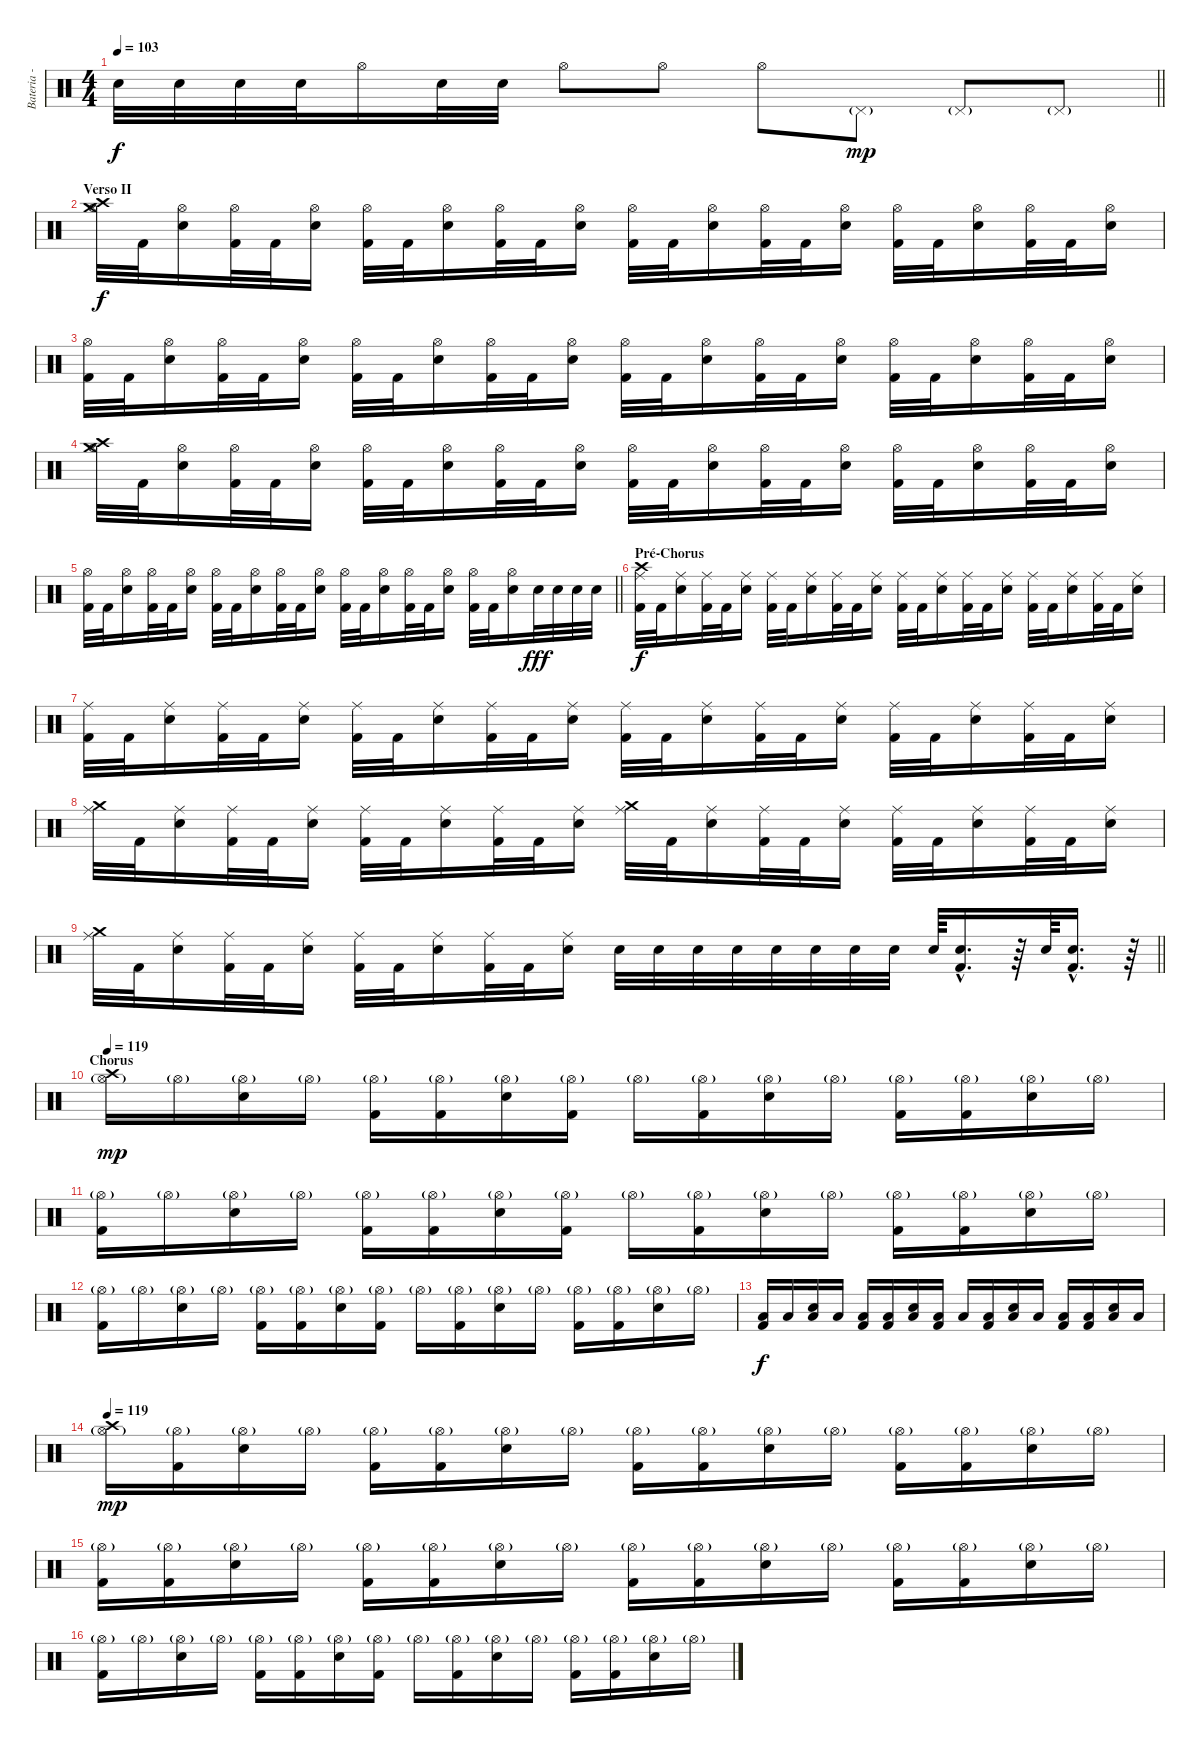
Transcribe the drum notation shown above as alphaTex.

\track ("Bateria - Larzon" "Bateria - ") {instrument percussion}
\staff {score}
\articulation defaults
\ts (4 4)
\tempo 103
\clef neutral
\barLineRight lightlight
\ks c "Snare (hit) 2".32{dy f} "Snare (hit) 2".32 "Snare (hit) 2".32 "Snare (hit) 2".32 "Hi-Hat (open)".16 "Snare (hit) 2".32 "Snare (hit) 2".32 "Hi-Hat (open)".8 "Hi-Hat (open)".8 "Hi-Hat (open)".8 "Pedal Hi-Hat (hit)"{g}.8{dy mp} "Pedal Hi-Hat (hit)"{g}.8 "Pedal Hi-Hat (hit)"{g}.8
|
\section ("" "Verso II")
("Crash high (hit)" "Crash medium (hit)" "Hi-Hat (open)").32{dy f} "Kick (hit) 2".32 ("Snare (hit) 2" "Hi-Hat (open)").16 ("Kick (hit) 2" "Hi-Hat (open)").32 "Kick (hit) 2".32 ("Snare (hit) 2" "Hi-Hat (open)").16 ("Kick (hit) 2" "Hi-Hat (open)").32 "Kick (hit) 2".32 ("Snare (hit) 2" "Hi-Hat (open)").16 ("Kick (hit) 2" "Hi-Hat (open)").32 "Kick (hit) 2".32 ("Snare (hit) 2" "Hi-Hat (open)").16 ("Kick (hit) 2" "Hi-Hat (open)").32 "Kick (hit) 2".32 ("Snare (hit) 2" "Hi-Hat (open)").16 ("Kick (hit) 2" "Hi-Hat (open)").32 "Kick (hit) 2".32 ("Snare (hit) 2" "Hi-Hat (open)").16 ("Kick (hit) 2" "Hi-Hat (open)").32 "Kick (hit) 2".32 ("Snare (hit) 2" "Hi-Hat (open)").16 ("Kick (hit) 2" "Hi-Hat (open)").32 "Kick (hit) 2".32 ("Snare (hit) 2" "Hi-Hat (open)").16 |
("Kick (hit) 2" "Hi-Hat (open)").32 "Kick (hit) 2".32 ("Snare (hit) 2" "Hi-Hat (open)").16 ("Kick (hit) 2" "Hi-Hat (open)").32 "Kick (hit) 2".32 ("Snare (hit) 2" "Hi-Hat (open)").16 ("Kick (hit) 2" "Hi-Hat (open)").32 "Kick (hit) 2".32 ("Snare (hit) 2" "Hi-Hat (open)").16 ("Kick (hit) 2" "Hi-Hat (open)").32 "Kick (hit) 2".32 ("Snare (hit) 2" "Hi-Hat (open)").16 ("Kick (hit) 2" "Hi-Hat (open)").32 "Kick (hit) 2".32 ("Snare (hit) 2" "Hi-Hat (open)").16 ("Kick (hit) 2" "Hi-Hat (open)").32 "Kick (hit) 2".32 ("Snare (hit) 2" "Hi-Hat (open)").16 ("Kick (hit) 2" "Hi-Hat (open)").32 "Kick (hit) 2".32 ("Snare (hit) 2" "Hi-Hat (open)").16 ("Kick (hit) 2" "Hi-Hat (open)").32 "Kick (hit) 2".32 ("Snare (hit) 2" "Hi-Hat (open)").16 |
("Crash high (hit)" "Crash medium (hit)" "Hi-Hat (open)").32 "Kick (hit) 2".32 ("Snare (hit) 2" "Hi-Hat (open)").16 ("Kick (hit) 2" "Hi-Hat (open)").32 "Kick (hit) 2".32 ("Snare (hit) 2" "Hi-Hat (open)").16 ("Kick (hit) 2" "Hi-Hat (open)").32 "Kick (hit) 2".32 ("Snare (hit) 2" "Hi-Hat (open)").16 ("Kick (hit) 2" "Hi-Hat (open)").32 "Kick (hit) 2".32 ("Snare (hit) 2" "Hi-Hat (open)").16 ("Kick (hit) 2" "Hi-Hat (open)").32 "Kick (hit) 2".32 ("Snare (hit) 2" "Hi-Hat (open)").16 ("Kick (hit) 2" "Hi-Hat (open)").32 "Kick (hit) 2".32 ("Snare (hit) 2" "Hi-Hat (open)").16 ("Kick (hit) 2" "Hi-Hat (open)").32 "Kick (hit) 2".32 ("Snare (hit) 2" "Hi-Hat (open)").16 ("Kick (hit) 2" "Hi-Hat (open)").32 "Kick (hit) 2".32 ("Snare (hit) 2" "Hi-Hat (open)").16 |
\barLineRight lightlight
("Kick (hit) 2" "Hi-Hat (open)").32 "Kick (hit) 2".32 ("Snare (hit) 2" "Hi-Hat (open)").16 ("Kick (hit) 2" "Hi-Hat (open)").32 "Kick (hit) 2".32 ("Snare (hit) 2" "Hi-Hat (open)").16 ("Kick (hit) 2" "Hi-Hat (open)").32 "Kick (hit) 2".32 ("Snare (hit) 2" "Hi-Hat (open)").16 ("Kick (hit) 2" "Hi-Hat (open)").32 "Kick (hit) 2".32 ("Snare (hit) 2" "Hi-Hat (open)").16 ("Kick (hit) 2" "Hi-Hat (open)").32 "Kick (hit) 2".32 ("Snare (hit) 2" "Hi-Hat (open)").16 ("Kick (hit) 2" "Hi-Hat (open)").32 "Kick (hit) 2".32 ("Snare (hit) 2" "Hi-Hat (open)").16 ("Kick (hit) 2" "Hi-Hat (open)").32 "Kick (hit) 2".32 ("Snare (hit) 2" "Hi-Hat (open)").16 "Snare (hit) 2".32{dy fff} "Snare (hit) 2".32 "Snare (hit) 2".32 "Snare (hit) 2".32 |
\section ("" "Pré-Chorus")
("Kick (hit) 2" "Crash high (hit)" "Ride (middle)").32{dy f} "Kick (hit) 2".32 ("Snare (hit) 2" "Ride (middle)").16 ("Kick (hit) 2" "Ride (middle)").32 "Kick (hit) 2".32 ("Snare (hit) 2" "Ride (middle)").16 ("Kick (hit) 2" "Ride (middle)").32 "Kick (hit) 2".32 ("Snare (hit) 2" "Ride (middle)").16 ("Kick (hit) 2" "Ride (middle)").32 "Kick (hit) 2".32 ("Snare (hit) 2" "Ride (middle)").16 ("Kick (hit) 2" "Ride (middle)").32 "Kick (hit) 2".32 ("Snare (hit) 2" "Ride (middle)").16 ("Kick (hit) 2" "Ride (middle)").32 "Kick (hit) 2".32 ("Snare (hit) 2" "Ride (middle)").16 ("Kick (hit) 2" "Ride (middle)").32 "Kick (hit) 2".32 ("Snare (hit) 2" "Ride (middle)").16 ("Kick (hit) 2" "Ride (middle)").32 "Kick (hit) 2".32 ("Snare (hit) 2" "Ride (middle)").16 |
("Kick (hit) 2" "Ride (middle)").32 "Kick (hit) 2".32 ("Snare (hit) 2" "Ride (middle)").16 ("Kick (hit) 2" "Ride (middle)").32 "Kick (hit) 2".32 ("Snare (hit) 2" "Ride (middle)").16 ("Kick (hit) 2" "Ride (middle)").32 "Kick (hit) 2".32 ("Snare (hit) 2" "Ride (middle)").16 ("Kick (hit) 2" "Ride (middle)").32 "Kick (hit) 2".32 ("Snare (hit) 2" "Ride (middle)").16 ("Kick (hit) 2" "Ride (middle)").32 "Kick (hit) 2".32 ("Snare (hit) 2" "Ride (middle)").16 ("Kick (hit) 2" "Ride (middle)").32 "Kick (hit) 2".32 ("Snare (hit) 2" "Ride (middle)").16 ("Kick (hit) 2" "Ride (middle)").32 "Kick (hit) 2".32 ("Snare (hit) 2" "Ride (middle)").16 ("Kick (hit) 2" "Ride (middle)").32 "Kick (hit) 2".32 ("Snare (hit) 2" "Ride (middle)").16 |
("Crash medium (hit)" "Ride (middle)").32 "Kick (hit) 2".32 ("Snare (hit) 2" "Ride (middle)").16 ("Kick (hit) 2" "Ride (middle)").32 "Kick (hit) 2".32 ("Snare (hit) 2" "Ride (middle)").16 ("Kick (hit) 2" "Ride (middle)").32 "Kick (hit) 2".32 ("Snare (hit) 2" "Ride (middle)").16 ("Kick (hit) 2" "Ride (middle)").32 "Kick (hit) 2".32 ("Snare (hit) 2" "Ride (middle)").16 ("Crash medium (hit)" "Ride (middle)").32 "Kick (hit) 2".32 ("Snare (hit) 2" "Ride (middle)").16 ("Kick (hit) 2" "Ride (middle)").32 "Kick (hit) 2".32 ("Snare (hit) 2" "Ride (middle)").16 ("Kick (hit) 2" "Ride (middle)").32 "Kick (hit) 2".32 ("Snare (hit) 2" "Ride (middle)").16 ("Kick (hit) 2" "Ride (middle)").32 "Kick (hit) 2".32 ("Snare (hit) 2" "Ride (middle)").16 |
\barLineRight lightlight
("Crash medium (hit)" "Ride (middle)").32 "Kick (hit) 2".32 ("Snare (hit) 2" "Ride (middle)").16 ("Kick (hit) 2" "Ride (middle)").32 "Kick (hit) 2".32 ("Snare (hit) 2" "Ride (middle)").16 ("Kick (hit) 2" "Ride (middle)").32 "Kick (hit) 2".32 ("Snare (hit) 2" "Ride (middle)").16 ("Kick (hit) 2" "Ride (middle)").32 "Kick (hit) 2".32 ("Snare (hit) 2" "Ride (middle)").16 "Snare (hit) 2".32 "Snare (hit) 2".32 "Snare (hit) 2".32 "Snare (hit) 2".32 "Snare (hit) 2".32 "Snare (hit) 2".32 "Snare (hit) 2".32 "Snare (hit) 2".32 "Snare (hit) 2".64 ("Kick (hit) 2"{hac} "Snare (hit) 2"{hac}).16{d} r.64 "Snare (hit) 2".64 ("Kick (hit) 2"{hac} "Snare (hit) 2"{hac}).16{d} r.64 |
\section ("" "Chorus")
\tempo 119
("Crash high (hit)" "Hi-Hat (open)"{g}).16{dy mp} "Hi-Hat (open)"{g}.16 ("Electric Snare (hit)" "Hi-Hat (open)"{g}).16 "Hi-Hat (open)"{g}.16 ("Kick (hit) 2" "Hi-Hat (open)"{g}).16 ("Kick (hit) 2" "Hi-Hat (open)"{g}).16 ("Electric Snare (hit)" "Hi-Hat (open)"{g}).16 ("Kick (hit) 2" "Hi-Hat (open)"{g}).16 "Hi-Hat (open)"{g}.16 ("Kick (hit) 2" "Hi-Hat (open)"{g}).16 ("Electric Snare (hit)" "Hi-Hat (open)"{g}).16 "Hi-Hat (open)"{g}.16 ("Kick (hit) 2" "Hi-Hat (open)"{g}).16 ("Kick (hit) 2" "Hi-Hat (open)"{g}).16 ("Electric Snare (hit)" "Hi-Hat (open)"{g}).16 "Hi-Hat (open)"{g}.16 |
("Kick (hit) 2" "Hi-Hat (open)"{g}).16 "Hi-Hat (open)"{g}.16 ("Electric Snare (hit)" "Hi-Hat (open)"{g}).16 "Hi-Hat (open)"{g}.16 ("Kick (hit) 2" "Hi-Hat (open)"{g}).16 ("Kick (hit) 2" "Hi-Hat (open)"{g}).16 ("Electric Snare (hit)" "Hi-Hat (open)"{g}).16 ("Kick (hit) 2" "Hi-Hat (open)"{g}).16 "Hi-Hat (open)"{g}.16 ("Kick (hit) 2" "Hi-Hat (open)"{g}).16 ("Electric Snare (hit)" "Hi-Hat (open)"{g}).16 "Hi-Hat (open)"{g}.16 ("Kick (hit) 2" "Hi-Hat (open)"{g}).16 ("Kick (hit) 2" "Hi-Hat (open)"{g}).16 ("Electric Snare (hit)" "Hi-Hat (open)"{g}).16 "Hi-Hat (open)"{g}.16 |
("Kick (hit) 2" "Hi-Hat (open)"{g}).16 "Hi-Hat (open)"{g}.16 ("Electric Snare (hit)" "Hi-Hat (open)"{g}).16 "Hi-Hat (open)"{g}.16 ("Kick (hit) 2" "Hi-Hat (open)"{g}).16 ("Kick (hit) 2" "Hi-Hat (open)"{g}).16 ("Electric Snare (hit)" "Hi-Hat (open)"{g}).16 ("Kick (hit) 2" "Hi-Hat (open)"{g}).16 "Hi-Hat (open)"{g}.16 ("Kick (hit) 2" "Hi-Hat (open)"{g}).16 ("Electric Snare (hit)" "Hi-Hat (open)"{g}).16 "Hi-Hat (open)"{g}.16 ("Kick (hit) 2" "Hi-Hat (open)"{g}).16 ("Kick (hit) 2" "Hi-Hat (open)"{g}).16 ("Electric Snare (hit)" "Hi-Hat (open)"{g}).16 "Hi-Hat (open)"{g}.16 |
("Kick (hit) 2" "Low Floor Tom (hit)").16{dy f} "Low Floor Tom (hit)".16 ("Electric Snare (hit)" "Low Floor Tom (hit)").16 "Low Floor Tom (hit)".16 ("Kick (hit) 2" "Low Floor Tom (hit)").16 ("Kick (hit) 2" "Low Floor Tom (hit)").16 ("Electric Snare (hit)" "Low Floor Tom (hit)").16 ("Kick (hit) 2" "Low Floor Tom (hit)").16 "Low Floor Tom (hit)".16 ("Kick (hit) 2" "Low Floor Tom (hit)").16 ("Electric Snare (hit)" "Low Floor Tom (hit)").16 "Low Floor Tom (hit)".16 ("Kick (hit) 2" "Low Floor Tom (hit)").16 ("Kick (hit) 2" "Low Floor Tom (hit)").16 ("Electric Snare (hit)" "Low Floor Tom (hit)").16 "Low Floor Tom (hit)".16 |
\tempo 119
("Crash high (hit)" "Hi-Hat (open)"{g}).16{dy mp} ("Kick (hit) 2" "Hi-Hat (open)"{g}).16 ("Electric Snare (hit)" "Hi-Hat (open)"{g}).16 "Hi-Hat (open)"{g}.16 ("Kick (hit) 2" "Hi-Hat (open)"{g}).16 ("Kick (hit) 2" "Hi-Hat (open)"{g}).16 ("Electric Snare (hit)" "Hi-Hat (open)"{g}).16 "Hi-Hat (open)"{g}.16 ("Kick (hit) 2" "Hi-Hat (open)"{g}).16 ("Kick (hit) 2" "Hi-Hat (open)"{g}).16 ("Electric Snare (hit)" "Hi-Hat (open)"{g}).16 "Hi-Hat (open)"{g}.16 ("Kick (hit) 2" "Hi-Hat (open)"{g}).16 ("Kick (hit) 2" "Hi-Hat (open)"{g}).16 ("Electric Snare (hit)" "Hi-Hat (open)"{g}).16 "Hi-Hat (open)"{g}.16 |
("Kick (hit) 2" "Hi-Hat (open)"{g}).16 ("Kick (hit) 2" "Hi-Hat (open)"{g}).16 ("Electric Snare (hit)" "Hi-Hat (open)"{g}).16 "Hi-Hat (open)"{g}.16 ("Kick (hit) 2" "Hi-Hat (open)"{g}).16 ("Kick (hit) 2" "Hi-Hat (open)"{g}).16 ("Electric Snare (hit)" "Hi-Hat (open)"{g}).16 "Hi-Hat (open)"{g}.16 ("Kick (hit) 2" "Hi-Hat (open)"{g}).16 ("Kick (hit) 2" "Hi-Hat (open)"{g}).16 ("Electric Snare (hit)" "Hi-Hat (open)"{g}).16 "Hi-Hat (open)"{g}.16 ("Kick (hit) 2" "Hi-Hat (open)"{g}).16 ("Kick (hit) 2" "Hi-Hat (open)"{g}).16 ("Electric Snare (hit)" "Hi-Hat (open)"{g}).16 "Hi-Hat (open)"{g}.16 |
("Kick (hit) 2" "Hi-Hat (open)"{g}).16 "Hi-Hat (open)"{g}.16 ("Electric Snare (hit)" "Hi-Hat (open)"{g}).16 "Hi-Hat (open)"{g}.16 ("Kick (hit) 2" "Hi-Hat (open)"{g}).16 ("Kick (hit) 2" "Hi-Hat (open)"{g}).16 ("Electric Snare (hit)" "Hi-Hat (open)"{g}).16 ("Kick (hit) 2" "Hi-Hat (open)"{g}).16 "Hi-Hat (open)"{g}.16 ("Kick (hit) 2" "Hi-Hat (open)"{g}).16 ("Electric Snare (hit)" "Hi-Hat (open)"{g}).16 "Hi-Hat (open)"{g}.16 ("Kick (hit) 2" "Hi-Hat (open)"{g}).16 ("Kick (hit) 2" "Hi-Hat (open)"{g}).16 ("Electric Snare (hit)" "Hi-Hat (open)"{g}).16 "Hi-Hat (open)"{g}.16
